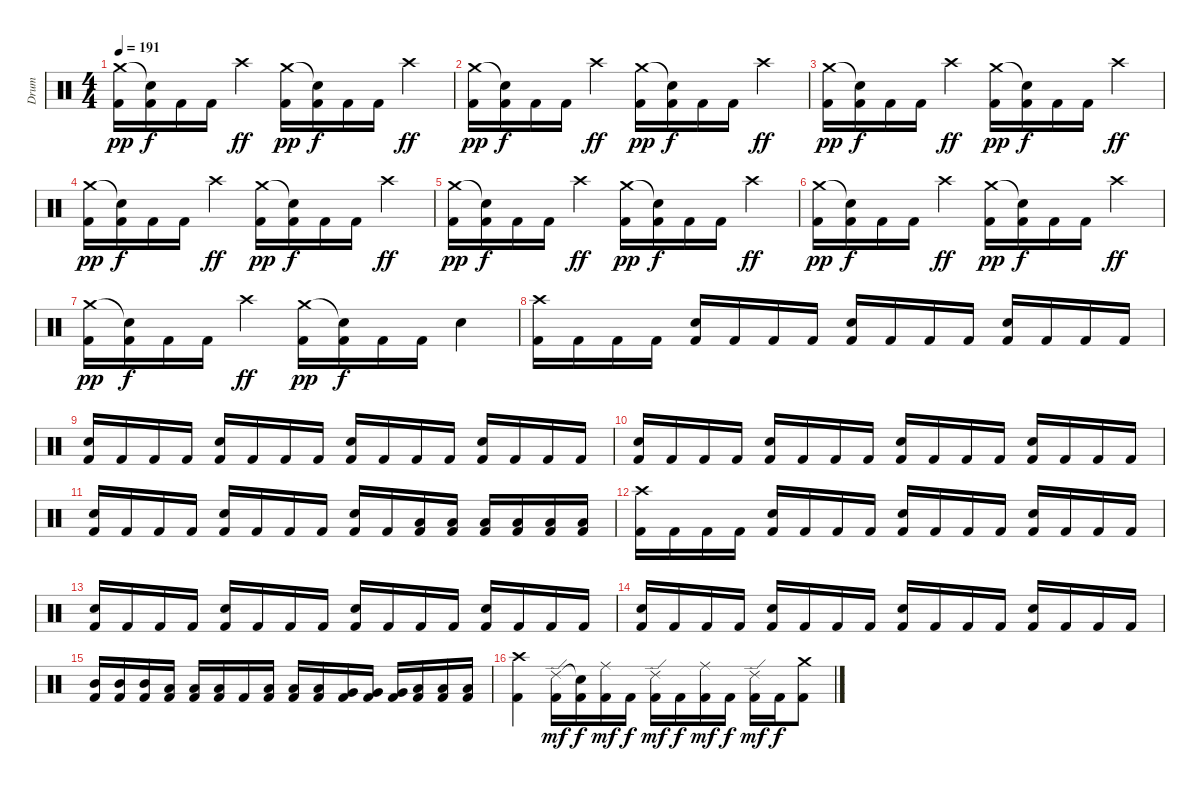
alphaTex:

\track ("Drum" "Drum") {instrument percussion}
\staff {score}
\articulation defaults
\ts (4 4)
\tempo 191
\clef neutral
\ks c
("Kick (hit) 2" "Crash medium (hit)").16{dy pp} ("Kick (hit) 2" "Snare (hit)"{t}).16{dy f} "Kick (hit) 2".16 "Kick (hit) 2".16 "Crash high (hit)".4{dy ff} ("Kick (hit) 2" "Crash medium (hit)").16{dy pp} ("Kick (hit) 2" "Snare (hit)"{t}).16{dy f} "Kick (hit) 2".16 "Kick (hit) 2".16 "Crash high (hit)".4{dy ff} |
("Kick (hit) 2" "Crash medium (hit)").16{dy pp} ("Kick (hit) 2" "Snare (hit)"{t}).16{dy f} "Kick (hit) 2".16 "Kick (hit) 2".16 "Crash high (hit)".4{dy ff} ("Kick (hit) 2" "Crash medium (hit)").16{dy pp} ("Kick (hit) 2" "Snare (hit)"{t}).16{dy f} "Kick (hit) 2".16 "Kick (hit) 2".16 "Crash high (hit)".4{dy ff} |
("Kick (hit) 2" "Crash medium (hit)").16{dy pp} ("Kick (hit) 2" "Snare (hit)"{t}).16{dy f} "Kick (hit) 2".16 "Kick (hit) 2".16 "Crash high (hit)".4{dy ff} ("Kick (hit) 2" "Crash medium (hit)").16{dy pp} ("Kick (hit) 2" "Snare (hit)"{t}).16{dy f} "Kick (hit) 2".16 "Kick (hit) 2".16 "Crash high (hit)".4{dy ff} |
("Kick (hit) 2" "Crash medium (hit)").16{dy pp} ("Kick (hit) 2" "Snare (hit)"{t}).16{dy f} "Kick (hit) 2".16 "Kick (hit) 2".16 "Crash high (hit)".4{dy ff} ("Kick (hit) 2" "Crash medium (hit)").16{dy pp} ("Kick (hit) 2" "Snare (hit)"{t}).16{dy f} "Kick (hit) 2".16 "Kick (hit) 2".16 "Crash high (hit)".4{dy ff} |
("Kick (hit) 2" "Crash medium (hit)").16{dy pp} ("Kick (hit) 2" "Snare (hit)"{t}).16{dy f} "Kick (hit) 2".16 "Kick (hit) 2".16 "Crash high (hit)".4{dy ff} ("Kick (hit) 2" "Crash medium (hit)").16{dy pp} ("Kick (hit) 2" "Snare (hit)"{t}).16{dy f} "Kick (hit) 2".16 "Kick (hit) 2".16 "Crash high (hit)".4{dy ff} |
("Kick (hit) 2" "Crash medium (hit)").16{dy pp} ("Kick (hit) 2" "Snare (hit)"{t}).16{dy f} "Kick (hit) 2".16 "Kick (hit) 2".16 "Crash high (hit)".4{dy ff} ("Kick (hit) 2" "Crash medium (hit)").16{dy pp} ("Kick (hit) 2" "Snare (hit)"{t}).16{dy f} "Kick (hit) 2".16 "Kick (hit) 2".16 "Crash high (hit)".4{dy ff} |
("Kick (hit) 2" "Crash medium (hit)").16{dy pp} ("Kick (hit) 2" "Snare (hit)"{t}).16{dy f} "Kick (hit) 2".16 "Kick (hit) 2".16 "Crash high (hit)".4{dy ff} ("Kick (hit) 2" "Crash medium (hit)").16{dy pp} ("Kick (hit) 2" "Snare (hit)"{t}).16{dy f} "Kick (hit) 2".16 "Kick (hit) 2".16 "Snare (hit) 2".4 |
("Kick (hit) 2" "Crash high (hit)").16 "Kick (hit) 2".16 "Kick (hit) 2".16 "Kick (hit) 2".16 ("Kick (hit) 2" "Snare (hit) 2").16 "Kick (hit) 2".16 "Kick (hit) 2".16 "Kick (hit) 2".16 ("Kick (hit) 2" "Snare (hit) 2").16 "Kick (hit) 2".16 "Kick (hit) 2".16 "Kick (hit) 2".16 ("Kick (hit) 2" "Snare (hit) 2").16 "Kick (hit) 2".16 "Kick (hit) 2".16 "Kick (hit) 2".16 |
("Kick (hit) 2" "Snare (hit) 2").16 "Kick (hit) 2".16 "Kick (hit) 2".16 "Kick (hit) 2".16 ("Kick (hit) 2" "Snare (hit) 2").16 "Kick (hit) 2".16 "Kick (hit) 2".16 "Kick (hit) 2".16 ("Kick (hit) 2" "Snare (hit) 2").16 "Kick (hit) 2".16 "Kick (hit) 2".16 "Kick (hit) 2".16 ("Kick (hit) 2" "Snare (hit) 2").16 "Kick (hit) 2".16 "Kick (hit) 2".16 "Kick (hit) 2".16 |
("Kick (hit) 2" "Snare (hit) 2").16 "Kick (hit) 2".16 "Kick (hit) 2".16 "Kick (hit) 2".16 ("Kick (hit) 2" "Snare (hit) 2").16 "Kick (hit) 2".16 "Kick (hit) 2".16 "Kick (hit) 2".16 ("Kick (hit) 2" "Snare (hit) 2").16 "Kick (hit) 2".16 "Kick (hit) 2".16 "Kick (hit) 2".16 ("Kick (hit) 2" "Snare (hit) 2").16 "Kick (hit) 2".16 "Kick (hit) 2".16 "Kick (hit) 2".16 |
("Kick (hit) 2" "Snare (hit) 2").16 "Kick (hit) 2".16 "Kick (hit) 2".16 "Kick (hit) 2".16 ("Kick (hit) 2" "Snare (hit) 2").16 "Kick (hit) 2".16 "Kick (hit) 2".16 "Kick (hit) 2".16 ("Kick (hit) 2" "Snare (hit) 2").16 "Kick (hit) 2".16 ("Kick (hit) 2" "Low Floor Tom (hit)").16 ("Kick (hit) 2" "Low Floor Tom (hit)").16 ("Kick (hit) 2" "Low Floor Tom (hit)").16 ("Kick (hit) 2" "Low Floor Tom (hit)").16 ("Kick (hit) 2" "Low Floor Tom (hit)").16 ("Kick (hit) 2" "Low Floor Tom (hit)").16 |
("Kick (hit) 2" "Crash high (hit)").16 "Kick (hit) 2".16 "Kick (hit) 2".16 "Kick (hit) 2".16 ("Kick (hit) 2" "Snare (hit) 2").16 "Kick (hit) 2".16 "Kick (hit) 2".16 "Kick (hit) 2".16 ("Kick (hit) 2" "Snare (hit) 2").16 "Kick (hit) 2".16 "Kick (hit) 2".16 "Kick (hit) 2".16 ("Kick (hit) 2" "Snare (hit) 2").16 "Kick (hit) 2".16 "Kick (hit) 2".16 "Kick (hit) 2".16 |
("Kick (hit) 2" "Snare (hit) 2").16 "Kick (hit) 2".16 "Kick (hit) 2".16 "Kick (hit) 2".16 ("Kick (hit) 2" "Snare (hit) 2").16 "Kick (hit) 2".16 "Kick (hit) 2".16 "Kick (hit) 2".16 ("Kick (hit) 2" "Snare (hit) 2").16 "Kick (hit) 2".16 "Kick (hit) 2".16 "Kick (hit) 2".16 ("Kick (hit) 2" "Snare (hit) 2").16 "Kick (hit) 2".16 "Kick (hit) 2".16 "Kick (hit) 2".16 |
("Kick (hit) 2" "Snare (hit) 2").16 "Kick (hit) 2".16 "Kick (hit) 2".16 "Kick (hit) 2".16 ("Kick (hit) 2" "Snare (hit) 2").16 "Kick (hit) 2".16 "Kick (hit) 2".16 "Kick (hit) 2".16 ("Kick (hit) 2" "Snare (hit) 2").16 "Kick (hit) 2".16 "Kick (hit) 2".16 "Kick (hit) 2".16 ("Kick (hit) 2" "Snare (hit) 2").16 "Kick (hit) 2".16 "Kick (hit) 2".16 "Kick (hit) 2".16 |
("Kick (hit) 2" "Mid Tom (hit)").16 ("Kick (hit) 2" "Mid Tom (hit)").16 ("Kick (hit) 2" "Mid Tom (hit)").16 ("Kick (hit) 2" "Low Tom (hit)").16 ("Kick (hit) 2" "Low Tom (hit)").16 ("Kick (hit) 2" "Low Tom (hit)").16 "Kick (hit) 2".16 ("Kick (hit) 2" "Low Tom (hit)").16 ("Kick (hit) 2" "Low Tom (hit)").16 ("Kick (hit) 2" "Low Tom (hit)").16 ("Kick (hit) 2" "Very Low Tom (hit)").16 ("Kick (hit) 2" "Very Low Tom (hit)").16 ("Kick (hit) 2" "Very Low Tom (hit)").16 ("Kick (hit) 2" "Low Floor Tom (hit)").16 ("Kick (hit) 2" "Low Floor Tom (hit)").16 ("Kick (hit) 2" "Low Floor Tom (hit)").16 |
("Kick (hit) 2" "Crash high (hit)").4 ("Kick (hit) 2" "Ride (edge) 2").16{dy mf} ("Kick (hit) 2" "Snare (hit)"{t}).16{dy f} ("Kick (hit) 2" "Ride (middle)").16{dy mf} "Kick (hit) 2".16{dy f} ("Kick (hit) 2" "Ride (edge) 2").16{dy mf} "Kick (hit) 2".16{dy f} ("Kick (hit) 2" "Ride (middle)").16{dy mf} "Kick (hit) 2".16{dy f} ("Kick (hit) 2" "Ride (edge) 2").16{dy mf} "Kick (hit) 2".16{dy f} ("Kick (hit) 2" "Crash medium (hit)").8
